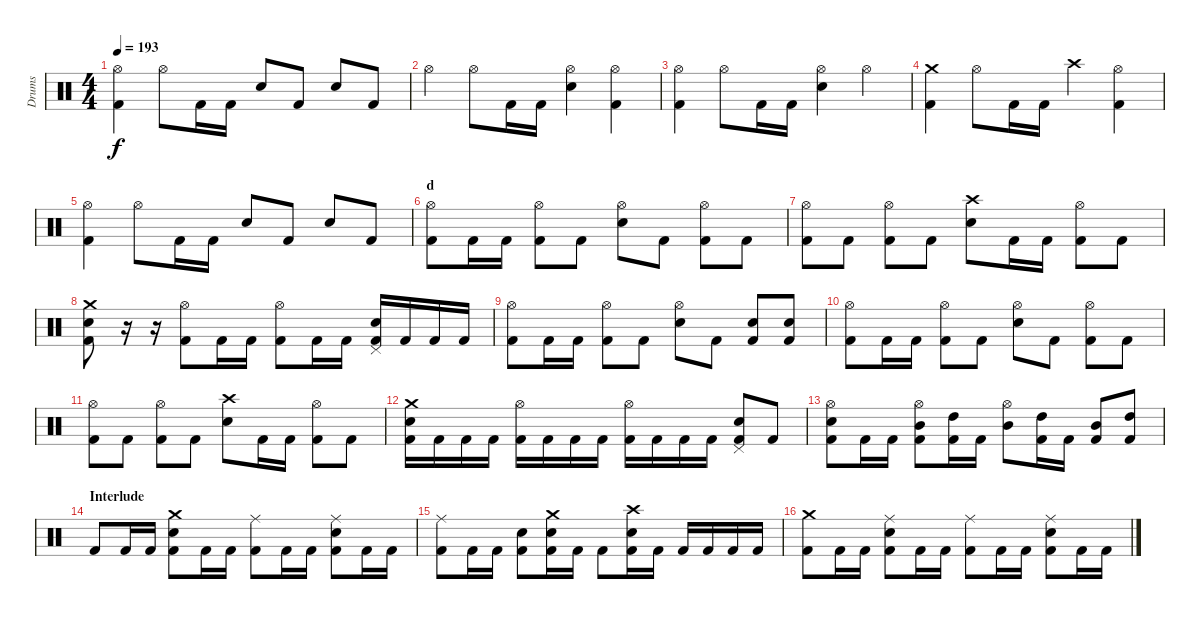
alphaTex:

\track ("Drums" "Drums") {instrument percussion}
\staff {score}
\articulation defaults
\ts (4 4)
\tempo 193
\clef neutral
\ks c
("Hi-Hat (open)" "Kick (hit) 2").4{dy f} "Hi-Hat (open)".8 "Kick (hit) 2".16 "Kick (hit) 2".16 "Snare (hit) 2".8 "Kick (hit) 2".8 "Snare (hit) 2".8 "Kick (hit) 2".8 |
"Hi-Hat (open)".4 "Hi-Hat (open)".8 "Kick (hit) 2".16 "Kick (hit) 2".16 ("Hi-Hat (open)" "Snare (hit) 2").4 ("Hi-Hat (open)" "Kick (hit) 2").4 |
("Hi-Hat (open)" "Kick (hit) 2").4 "Hi-Hat (open)".8 "Kick (hit) 2".16 "Kick (hit) 2".16 ("Hi-Hat (open)" "Snare (hit) 2").4 "Hi-Hat (open)".4 |
("Crash medium (hit)" "Kick (hit) 2").4 "Hi-Hat (open)".8 "Kick (hit) 2".16 "Kick (hit) 2".16 "Crash high (hit)".4 ("Hi-Hat (open)" "Kick (hit) 2").4 |
("Hi-Hat (open)" "Kick (hit) 2").4 "Hi-Hat (open)".8 "Kick (hit) 2".16 "Kick (hit) 2".16 "Snare (hit) 2".8 "Kick (hit) 2".8 "Snare (hit) 2".8 "Kick (hit) 2".8 |
\section ("" "d")
("Hi-Hat (open)" "Kick (hit) 2").8 "Kick (hit) 2".16 "Kick (hit) 2".16 ("Hi-Hat (open)" "Kick (hit) 2").8 "Kick (hit) 2".8 ("Hi-Hat (open)" "Snare (hit) 2").8 "Kick (hit) 2".8 ("Hi-Hat (open)" "Kick (hit) 2").8 "Kick (hit) 2".8 |
("Hi-Hat (open)" "Kick (hit) 2").8 "Kick (hit) 2".8 ("Hi-Hat (open)" "Kick (hit) 2").8 "Kick (hit) 2".8 ("Crash high (hit)" "Snare (hit) 2").8 "Kick (hit) 2".16 "Kick (hit) 2".16 ("Hi-Hat (open)" "Kick (hit) 2").8 "Kick (hit) 2".8 |
("Crash medium (hit)" "Snare (hit) 2" "Kick (hit) 2").8 r.16 r.16 ("Hi-Hat (open)" "Kick (hit) 2").8 "Kick (hit) 2".16 "Kick (hit) 2".16 ("Hi-Hat (open)" "Kick (hit) 2").8 "Kick (hit) 2".16 "Kick (hit) 2".16 ("Pedal Hi-Hat (hit)" "Snare (hit) 2" "Kick (hit) 2").16 "Kick (hit) 2".16 "Kick (hit) 2".16 "Kick (hit) 2".16 |
("Hi-Hat (open)" "Kick (hit) 2").8 "Kick (hit) 2".16 "Kick (hit) 2".16 ("Hi-Hat (open)" "Kick (hit) 2").8 "Kick (hit) 2".8 ("Hi-Hat (open)" "Snare (hit) 2").8 "Kick (hit) 2".8 ("Snare (hit) 2" "Kick (hit) 2").8 ("Snare (hit) 2" "Kick (hit) 2").8 |
("Hi-Hat (open)" "Kick (hit) 2").8 "Kick (hit) 2".16 "Kick (hit) 2".16 ("Hi-Hat (open)" "Kick (hit) 2").8 "Kick (hit) 2".8 ("Hi-Hat (open)" "Snare (hit) 2").8 "Kick (hit) 2".8 ("Hi-Hat (open)" "Kick (hit) 2").8 "Kick (hit) 2".8 |
("Hi-Hat (open)" "Kick (hit) 2").8 "Kick (hit) 2".8 ("Hi-Hat (open)" "Kick (hit) 2").8 "Kick (hit) 2".8 ("Crash high (hit)" "Snare (hit) 2").8 "Kick (hit) 2".16 "Kick (hit) 2".16 ("Hi-Hat (open)" "Kick (hit) 2").8 "Kick (hit) 2".8 |
("Crash medium (hit)" "Snare (hit) 2" "Kick (hit) 2").16 "Kick (hit) 2".16 "Kick (hit) 2".16 "Kick (hit) 2".16 ("Hi-Hat (open)" "Kick (hit) 2").16 "Kick (hit) 2".16 "Kick (hit) 2".16 "Kick (hit) 2".16 ("Hi-Hat (open)" "Kick (hit) 2").16 "Kick (hit) 2".16 "Kick (hit) 2".16 "Kick (hit) 2".16 ("Pedal Hi-Hat (hit)" "Snare (hit) 2" "Kick (hit) 2").8 "Kick (hit) 2".8 |
("Hi-Hat (open)" "Snare (hit) 2" "Kick (hit) 2").8 "Kick (hit) 2".16 "Kick (hit) 2".16 ("Mid Tom (hit)" "Hi-Hat (open)" "Kick (hit) 2").8 ("High Tom (hit)" "Kick (hit) 2").16 "Kick (hit) 2".16 ("Mid Tom (hit)" "Hi-Hat (open)").8 ("High Tom (hit)" "Kick (hit) 2").16 "Kick (hit) 2".16 ("Mid Tom (hit)" "Kick (hit) 2").8 ("High Tom (hit)" "Kick (hit) 2").8 |
\section ("" "Interlude")
"Kick (hit) 2".8 "Kick (hit) 2".16 "Kick (hit) 2".16 ("Crash medium (hit)" "Snare (hit) 2" "Kick (hit) 2").8 "Kick (hit) 2".16 "Kick (hit) 2".16 ("Ride (middle)" "Kick (hit) 2").8 "Kick (hit) 2".16 "Kick (hit) 2".16 ("Ride (middle)" "Snare (hit) 2" "Kick (hit) 2").8 "Kick (hit) 2".16 "Kick (hit) 2".16 |
("Ride (middle)" "Kick (hit) 2").8 "Kick (hit) 2".16 "Kick (hit) 2".16 ("Snare (hit) 2" "Kick (hit) 2").8 ("Crash medium (hit)" "Snare (hit) 2" "Kick (hit) 2").16 "Kick (hit) 2".16 "Kick (hit) 2".8 ("Crash high (hit)" "Snare (hit) 2" "Kick (hit) 2").16 "Kick (hit) 2".16 "Kick (hit) 2".16 "Kick (hit) 2".16 "Kick (hit) 2".16 "Kick (hit) 2".16 |
("Crash medium (hit)" "Kick (hit) 2").8 "Kick (hit) 2".16 "Kick (hit) 2".16 ("Ride (middle)" "Snare (hit) 2" "Kick (hit) 2").8 "Kick (hit) 2".16 "Kick (hit) 2".16 ("Ride (middle)" "Kick (hit) 2").8 "Kick (hit) 2".16 "Kick (hit) 2".16 ("Ride (middle)" "Snare (hit) 2" "Kick (hit) 2").8 "Kick (hit) 2".16 "Kick (hit) 2".16
